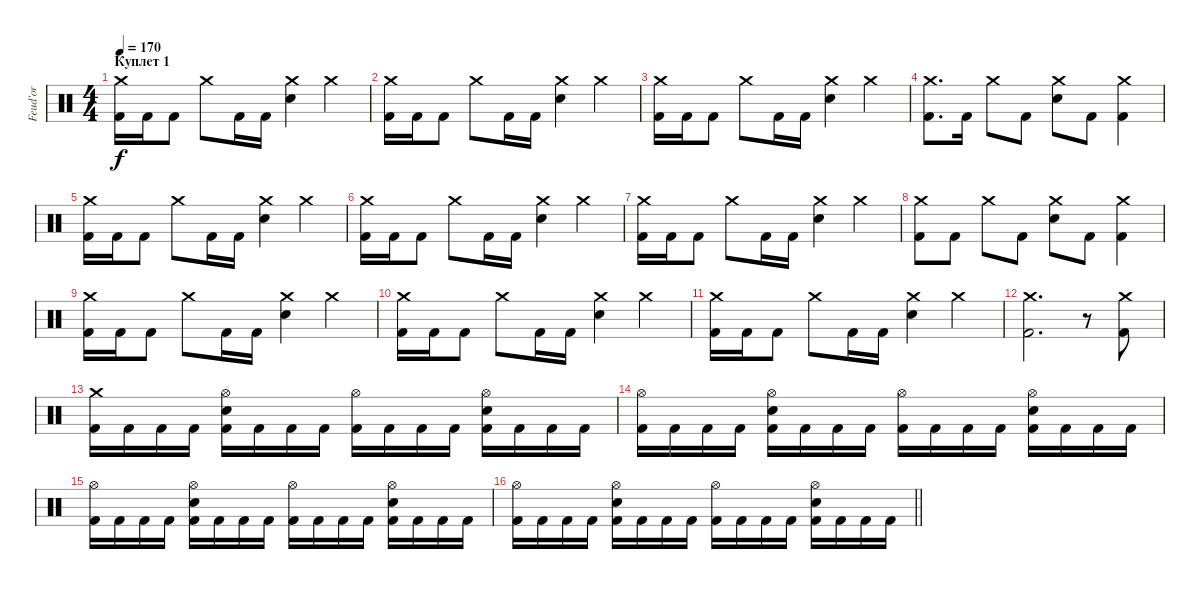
\track ("Feud'or" "Feud'or") {instrument percussion}
\staff {score}
\articulation defaults
\ts (4 4)
\section ("" "Куплет 1")
\tempo 170
\clef neutral
\ks c
("Crash medium (hit)" "Kick (hit) 2").16{dy f} "Kick (hit) 2".16 "Kick (hit) 2".8 "Crash medium (hit)".8 "Kick (hit) 2".16 "Kick (hit) 2".16 ("Crash medium (hit)" "Electric Snare (hit)").4 "Crash medium (hit)".4 |
("Crash medium (hit)" "Kick (hit) 2").16 "Kick (hit) 2".16 "Kick (hit) 2".8 "Crash medium (hit)".8 "Kick (hit) 2".16 "Kick (hit) 2".16 ("Crash medium (hit)" "Electric Snare (hit)").4 "Crash medium (hit)".4 |
("Crash medium (hit)" "Kick (hit) 2").16 "Kick (hit) 2".16 "Kick (hit) 2".8 "Crash medium (hit)".8 "Kick (hit) 2".16 "Kick (hit) 2".16 ("Crash medium (hit)" "Electric Snare (hit)").4 "Crash medium (hit)".4 |
("Crash medium (hit)" "Kick (hit) 2").8{d} "Kick (hit) 2".16 "Crash medium (hit)".8 "Kick (hit) 2".8 ("Crash medium (hit)" "Electric Snare (hit)").8 "Kick (hit) 2".8 ("Crash medium (hit)" "Kick (hit) 2").4 |
("Crash medium (hit)" "Kick (hit) 2").16 "Kick (hit) 2".16 "Kick (hit) 2".8 "Crash medium (hit)".8 "Kick (hit) 2".16 "Kick (hit) 2".16 ("Crash medium (hit)" "Electric Snare (hit)").4 "Crash medium (hit)".4 |
("Crash medium (hit)" "Kick (hit) 2").16 "Kick (hit) 2".16 "Kick (hit) 2".8 "Crash medium (hit)".8 "Kick (hit) 2".16 "Kick (hit) 2".16 ("Crash medium (hit)" "Electric Snare (hit)").4 "Crash medium (hit)".4 |
("Crash medium (hit)" "Kick (hit) 2").16 "Kick (hit) 2".16 "Kick (hit) 2".8 "Crash medium (hit)".8 "Kick (hit) 2".16 "Kick (hit) 2".16 ("Crash medium (hit)" "Electric Snare (hit)").4 "Crash medium (hit)".4 |
("Crash medium (hit)" "Kick (hit) 2").8 "Kick (hit) 2".8 "Crash medium (hit)".8 "Kick (hit) 2".8 ("Crash medium (hit)" "Electric Snare (hit)").8 "Kick (hit) 2".8 ("Crash medium (hit)" "Kick (hit) 2").4 |
("Crash medium (hit)" "Kick (hit) 2").16 "Kick (hit) 2".16 "Kick (hit) 2".8 "Crash medium (hit)".8 "Kick (hit) 2".16 "Kick (hit) 2".16 ("Crash medium (hit)" "Electric Snare (hit)").4 "Crash medium (hit)".4 |
("Crash medium (hit)" "Kick (hit) 2").16 "Kick (hit) 2".16 "Kick (hit) 2".8 "Crash medium (hit)".8 "Kick (hit) 2".16 "Kick (hit) 2".16 ("Crash medium (hit)" "Electric Snare (hit)").4 "Crash medium (hit)".4 |
("Crash medium (hit)" "Kick (hit) 2").16 "Kick (hit) 2".16 "Kick (hit) 2".8 "Crash medium (hit)".8 "Kick (hit) 2".16 "Kick (hit) 2".16 ("Crash medium (hit)" "Electric Snare (hit)").4 "Crash medium (hit)".4 |
("Crash medium (hit)" "Kick (hit) 2").2{d} r.8 ("Crash medium (hit)" "Kick (hit) 2").8 |
("Crash medium (hit)" "Kick (hit) 2").16 "Kick (hit) 2".16 "Kick (hit) 2".16 "Kick (hit) 2".16 ("Hi-Hat (open)" "Electric Snare (hit)" "Kick (hit) 2").16 "Kick (hit) 2".16 "Kick (hit) 2".16 "Kick (hit) 2".16 ("Hi-Hat (open)" "Kick (hit) 2").16 "Kick (hit) 2".16 "Kick (hit) 2".16 "Kick (hit) 2".16 ("Hi-Hat (open)" "Electric Snare (hit)" "Kick (hit) 2").16 "Kick (hit) 2".16 "Kick (hit) 2".16 "Kick (hit) 2".16 |
("Hi-Hat (open)" "Kick (hit) 2").16 "Kick (hit) 2".16 "Kick (hit) 2".16 "Kick (hit) 2".16 ("Hi-Hat (open)" "Electric Snare (hit)" "Kick (hit) 2").16 "Kick (hit) 2".16 "Kick (hit) 2".16 "Kick (hit) 2".16 ("Hi-Hat (open)" "Kick (hit) 2").16 "Kick (hit) 2".16 "Kick (hit) 2".16 "Kick (hit) 2".16 ("Hi-Hat (open)" "Electric Snare (hit)" "Kick (hit) 2").16 "Kick (hit) 2".16 "Kick (hit) 2".16 "Kick (hit) 2".16 |
("Hi-Hat (open)" "Kick (hit) 2").16 "Kick (hit) 2".16 "Kick (hit) 2".16 "Kick (hit) 2".16 ("Hi-Hat (open)" "Electric Snare (hit)" "Kick (hit) 2").16 "Kick (hit) 2".16 "Kick (hit) 2".16 "Kick (hit) 2".16 ("Hi-Hat (open)" "Kick (hit) 2").16 "Kick (hit) 2".16 "Kick (hit) 2".16 "Kick (hit) 2".16 ("Hi-Hat (open)" "Electric Snare (hit)" "Kick (hit) 2").16 "Kick (hit) 2".16 "Kick (hit) 2".16 "Kick (hit) 2".16 |
\barLineRight lightlight
("Hi-Hat (open)" "Kick (hit) 2").16 "Kick (hit) 2".16 "Kick (hit) 2".16 "Kick (hit) 2".16 ("Hi-Hat (open)" "Electric Snare (hit)" "Kick (hit) 2").16 "Kick (hit) 2".16 "Kick (hit) 2".16 "Kick (hit) 2".16 ("Hi-Hat (open)" "Kick (hit) 2").16 "Kick (hit) 2".16 "Kick (hit) 2".16 "Kick (hit) 2".16 ("Hi-Hat (open)" "Electric Snare (hit)" "Kick (hit) 2").16 "Kick (hit) 2".16 "Kick (hit) 2".16 "Kick (hit) 2".16
